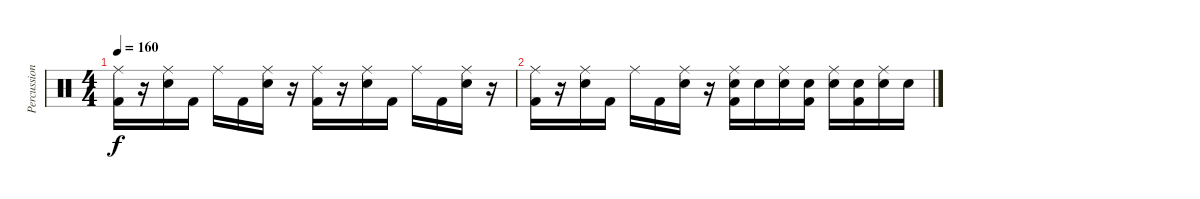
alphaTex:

\track ("Percussion" "Percussion") {instrument percussion}
\staff {score}
\articulation defaults
\ts (4 4)
\tempo 160
\clef neutral
\ks c
("Ride (middle)" "Kick (hit) 2").16{dy f} r.16 ("Ride (middle)" "Electric Snare (hit)").16 "Kick (hit) 2".16 "Ride (middle)".16 "Kick (hit) 2".16 ("Ride (middle)" "Electric Snare (hit)").16 r.16 ("Ride (middle)" "Kick (hit) 2").16 r.16 ("Ride (middle)" "Electric Snare (hit)").16 "Kick (hit) 2".16 "Ride (middle)".16 "Kick (hit) 2".16 ("Ride (middle)" "Electric Snare (hit)").16 r.16 |
("Ride (middle)" "Kick (hit) 2").16 r.16 ("Ride (middle)" "Electric Snare (hit)").16 "Kick (hit) 2".16 "Ride (middle)".16 "Kick (hit) 2".16 ("Ride (middle)" "Electric Snare (hit)").16 r.16 ("Ride (middle)" "Electric Snare (hit)" "Kick (hit) 2").16 "Electric Snare (hit)".16 ("Ride (middle)" "Electric Snare (hit)").16 ("Electric Snare (hit)" "Kick (hit) 2").16 ("Ride (middle)" "Electric Snare (hit)").16 ("Electric Snare (hit)" "Kick (hit) 2").16 ("Ride (middle)" "Electric Snare (hit)").16 "Electric Snare (hit)".16
